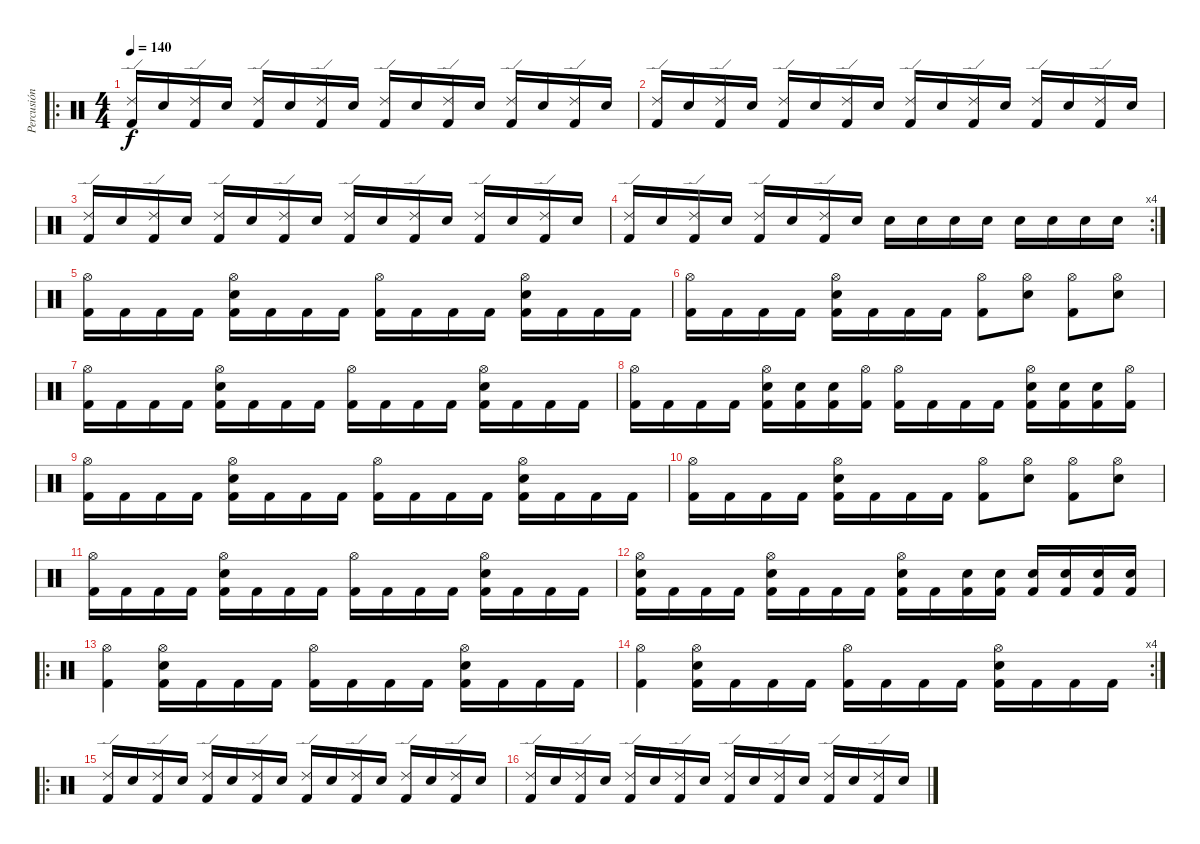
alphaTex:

\track ("Percusión" "Percusión") {instrument percussion}
\staff {score}
\articulation defaults
\ro
\ts (4 4)
\tempo 140
\clef neutral
\ks c
("Kick (hit) 2" "Ride (edge) 2").16{dy f} "Electric Snare (hit)".16 ("Kick (hit) 2" "Ride (edge) 2").16 "Electric Snare (hit)".16 ("Kick (hit) 2" "Ride (edge) 2").16 "Electric Snare (hit)".16 ("Kick (hit) 2" "Ride (edge) 2").16 "Electric Snare (hit)".16 ("Kick (hit) 2" "Ride (edge) 2").16 "Electric Snare (hit)".16 ("Kick (hit) 2" "Ride (edge) 2").16 "Electric Snare (hit)".16 ("Kick (hit) 2" "Ride (edge) 2").16 "Electric Snare (hit)".16 ("Kick (hit) 2" "Ride (edge) 2").16 "Electric Snare (hit)".16 |
("Kick (hit) 2" "Ride (edge) 2").16 "Electric Snare (hit)".16 ("Kick (hit) 2" "Ride (edge) 2").16 "Electric Snare (hit)".16 ("Kick (hit) 2" "Ride (edge) 2").16 "Electric Snare (hit)".16 ("Kick (hit) 2" "Ride (edge) 2").16 "Electric Snare (hit)".16 ("Kick (hit) 2" "Ride (edge) 2").16 "Electric Snare (hit)".16 ("Kick (hit) 2" "Ride (edge) 2").16 "Electric Snare (hit)".16 ("Kick (hit) 2" "Ride (edge) 2").16 "Electric Snare (hit)".16 ("Kick (hit) 2" "Ride (edge) 2").16 "Electric Snare (hit)".16 |
("Kick (hit) 2" "Ride (edge) 2").16 "Electric Snare (hit)".16 ("Kick (hit) 2" "Ride (edge) 2").16 "Electric Snare (hit)".16 ("Kick (hit) 2" "Ride (edge) 2").16 "Electric Snare (hit)".16 ("Kick (hit) 2" "Ride (edge) 2").16 "Electric Snare (hit)".16 ("Kick (hit) 2" "Ride (edge) 2").16 "Electric Snare (hit)".16 ("Kick (hit) 2" "Ride (edge) 2").16 "Electric Snare (hit)".16 ("Kick (hit) 2" "Ride (edge) 2").16 "Electric Snare (hit)".16 ("Kick (hit) 2" "Ride (edge) 2").16 "Electric Snare (hit)".16 |
\rc 4
("Kick (hit) 2" "Ride (edge) 2").16 "Electric Snare (hit)".16 ("Kick (hit) 2" "Ride (edge) 2").16 "Electric Snare (hit)".16 ("Kick (hit) 2" "Ride (edge) 2").16 "Electric Snare (hit)".16 ("Kick (hit) 2" "Ride (edge) 2").16 "Electric Snare (hit)".16 "Electric Snare (hit)".16 "Electric Snare (hit)".16 "Electric Snare (hit)".16 "Electric Snare (hit)".16 "Electric Snare (hit)".16 "Electric Snare (hit)".16 "Electric Snare (hit)".16 "Electric Snare (hit)".16 |
("Kick (hit) 2" "Hi-Hat (open)").16 "Kick (hit) 2".16 "Kick (hit) 2".16 "Kick (hit) 2".16 ("Kick (hit) 2" "Electric Snare (hit)" "Hi-Hat (open)").16 "Kick (hit) 2".16 "Kick (hit) 2".16 "Kick (hit) 2".16 ("Kick (hit) 2" "Hi-Hat (open)").16 "Kick (hit) 2".16 "Kick (hit) 2".16 "Kick (hit) 2".16 ("Kick (hit) 2" "Electric Snare (hit)" "Hi-Hat (open)").16 "Kick (hit) 2".16 "Kick (hit) 2".16 "Kick (hit) 2".16 |
("Kick (hit) 2" "Hi-Hat (open)").16 "Kick (hit) 2".16 "Kick (hit) 2".16 "Kick (hit) 2".16 ("Kick (hit) 2" "Electric Snare (hit)" "Hi-Hat (open)").16 "Kick (hit) 2".16 "Kick (hit) 2".16 "Kick (hit) 2".16 ("Kick (hit) 2" "Hi-Hat (open)").8 ("Electric Snare (hit)" "Hi-Hat (open)").8 ("Kick (hit) 2" "Hi-Hat (open)").8 ("Electric Snare (hit)" "Hi-Hat (open)").8 |
("Kick (hit) 2" "Hi-Hat (open)").16 "Kick (hit) 2".16 "Kick (hit) 2".16 "Kick (hit) 2".16 ("Kick (hit) 2" "Electric Snare (hit)" "Hi-Hat (open)").16 "Kick (hit) 2".16 "Kick (hit) 2".16 "Kick (hit) 2".16 ("Kick (hit) 2" "Hi-Hat (open)").16 "Kick (hit) 2".16 "Kick (hit) 2".16 "Kick (hit) 2".16 ("Kick (hit) 2" "Electric Snare (hit)" "Hi-Hat (open)").16 "Kick (hit) 2".16 "Kick (hit) 2".16 "Kick (hit) 2".16 |
("Kick (hit) 2" "Hi-Hat (open)").16 "Kick (hit) 2".16 "Kick (hit) 2".16 "Kick (hit) 2".16 ("Kick (hit) 2" "Electric Snare (hit)" "Hi-Hat (open)").16 ("Kick (hit) 2" "Electric Snare (hit)").16 ("Kick (hit) 2" "Electric Snare (hit)").16 ("Kick (hit) 2" "Hi-Hat (open)").16 ("Kick (hit) 2" "Hi-Hat (open)").16 "Kick (hit) 2".16 "Kick (hit) 2".16 "Kick (hit) 2".16 ("Kick (hit) 2" "Electric Snare (hit)" "Hi-Hat (open)").16 ("Kick (hit) 2" "Electric Snare (hit)").16 ("Kick (hit) 2" "Electric Snare (hit)").16 ("Kick (hit) 2" "Hi-Hat (open)").16 |
("Kick (hit) 2" "Hi-Hat (open)").16 "Kick (hit) 2".16 "Kick (hit) 2".16 "Kick (hit) 2".16 ("Kick (hit) 2" "Electric Snare (hit)" "Hi-Hat (open)").16 "Kick (hit) 2".16 "Kick (hit) 2".16 "Kick (hit) 2".16 ("Kick (hit) 2" "Hi-Hat (open)").16 "Kick (hit) 2".16 "Kick (hit) 2".16 "Kick (hit) 2".16 ("Kick (hit) 2" "Electric Snare (hit)" "Hi-Hat (open)").16 "Kick (hit) 2".16 "Kick (hit) 2".16 "Kick (hit) 2".16 |
("Kick (hit) 2" "Hi-Hat (open)").16 "Kick (hit) 2".16 "Kick (hit) 2".16 "Kick (hit) 2".16 ("Kick (hit) 2" "Electric Snare (hit)" "Hi-Hat (open)").16 "Kick (hit) 2".16 "Kick (hit) 2".16 "Kick (hit) 2".16 ("Kick (hit) 2" "Hi-Hat (open)").8 ("Electric Snare (hit)" "Hi-Hat (open)").8 ("Kick (hit) 2" "Hi-Hat (open)").8 ("Electric Snare (hit)" "Hi-Hat (open)").8 |
("Kick (hit) 2" "Hi-Hat (open)").16 "Kick (hit) 2".16 "Kick (hit) 2".16 "Kick (hit) 2".16 ("Kick (hit) 2" "Electric Snare (hit)" "Hi-Hat (open)").16 "Kick (hit) 2".16 "Kick (hit) 2".16 "Kick (hit) 2".16 ("Kick (hit) 2" "Hi-Hat (open)").16 "Kick (hit) 2".16 "Kick (hit) 2".16 "Kick (hit) 2".16 ("Kick (hit) 2" "Electric Snare (hit)" "Hi-Hat (open)").16 "Kick (hit) 2".16 "Kick (hit) 2".16 "Kick (hit) 2".16 |
("Kick (hit) 2" "Electric Snare (hit)" "Hi-Hat (open)").16 "Kick (hit) 2".16 "Kick (hit) 2".16 "Kick (hit) 2".16 ("Kick (hit) 2" "Electric Snare (hit)" "Hi-Hat (open)").16 "Kick (hit) 2".16 "Kick (hit) 2".16 "Kick (hit) 2".16 ("Kick (hit) 2" "Electric Snare (hit)" "Hi-Hat (open)").16 "Kick (hit) 2".16 ("Kick (hit) 2" "Electric Snare (hit)").16 ("Kick (hit) 2" "Electric Snare (hit)").16 ("Kick (hit) 2" "Electric Snare (hit)").16 ("Kick (hit) 2" "Electric Snare (hit)").16 ("Kick (hit) 2" "Electric Snare (hit)").16 ("Kick (hit) 2" "Electric Snare (hit)").16 |
\ro
("Kick (hit) 2" "Hi-Hat (open)").4 ("Kick (hit) 2" "Electric Snare (hit)" "Hi-Hat (open)").16 "Kick (hit) 2".16 "Kick (hit) 2".16 "Kick (hit) 2".16 ("Kick (hit) 2" "Hi-Hat (open)").16 "Kick (hit) 2".16 "Kick (hit) 2".16 "Kick (hit) 2".16 ("Kick (hit) 2" "Electric Snare (hit)" "Hi-Hat (open)").16 "Kick (hit) 2".16 "Kick (hit) 2".16 "Kick (hit) 2".16 |
\rc 4
("Kick (hit) 2" "Hi-Hat (open)").4 ("Kick (hit) 2" "Electric Snare (hit)" "Hi-Hat (open)").16 "Kick (hit) 2".16 "Kick (hit) 2".16 "Kick (hit) 2".16 ("Kick (hit) 2" "Hi-Hat (open)").16 "Kick (hit) 2".16 "Kick (hit) 2".16 "Kick (hit) 2".16 ("Kick (hit) 2" "Electric Snare (hit)" "Hi-Hat (open)").16 "Kick (hit) 2".16 "Kick (hit) 2".16 "Kick (hit) 2".16 |
\ro
("Kick (hit) 2" "Ride (edge) 2").16 "Electric Snare (hit)".16 ("Kick (hit) 2" "Ride (edge) 2").16 "Electric Snare (hit)".16 ("Kick (hit) 2" "Ride (edge) 2").16 "Electric Snare (hit)".16 ("Kick (hit) 2" "Ride (edge) 2").16 "Electric Snare (hit)".16 ("Kick (hit) 2" "Ride (edge) 2").16 "Electric Snare (hit)".16 ("Kick (hit) 2" "Ride (edge) 2").16 "Electric Snare (hit)".16 ("Kick (hit) 2" "Ride (edge) 2").16 "Electric Snare (hit)".16 ("Kick (hit) 2" "Ride (edge) 2").16 "Electric Snare (hit)".16 |
("Kick (hit) 2" "Ride (edge) 2").16 "Electric Snare (hit)".16 ("Kick (hit) 2" "Ride (edge) 2").16 "Electric Snare (hit)".16 ("Kick (hit) 2" "Ride (edge) 2").16 "Electric Snare (hit)".16 ("Kick (hit) 2" "Ride (edge) 2").16 "Electric Snare (hit)".16 ("Kick (hit) 2" "Ride (edge) 2").16 "Electric Snare (hit)".16 ("Kick (hit) 2" "Ride (edge) 2").16 "Electric Snare (hit)".16 ("Kick (hit) 2" "Ride (edge) 2").16 "Electric Snare (hit)".16 ("Kick (hit) 2" "Ride (edge) 2").16 "Electric Snare (hit)".16
